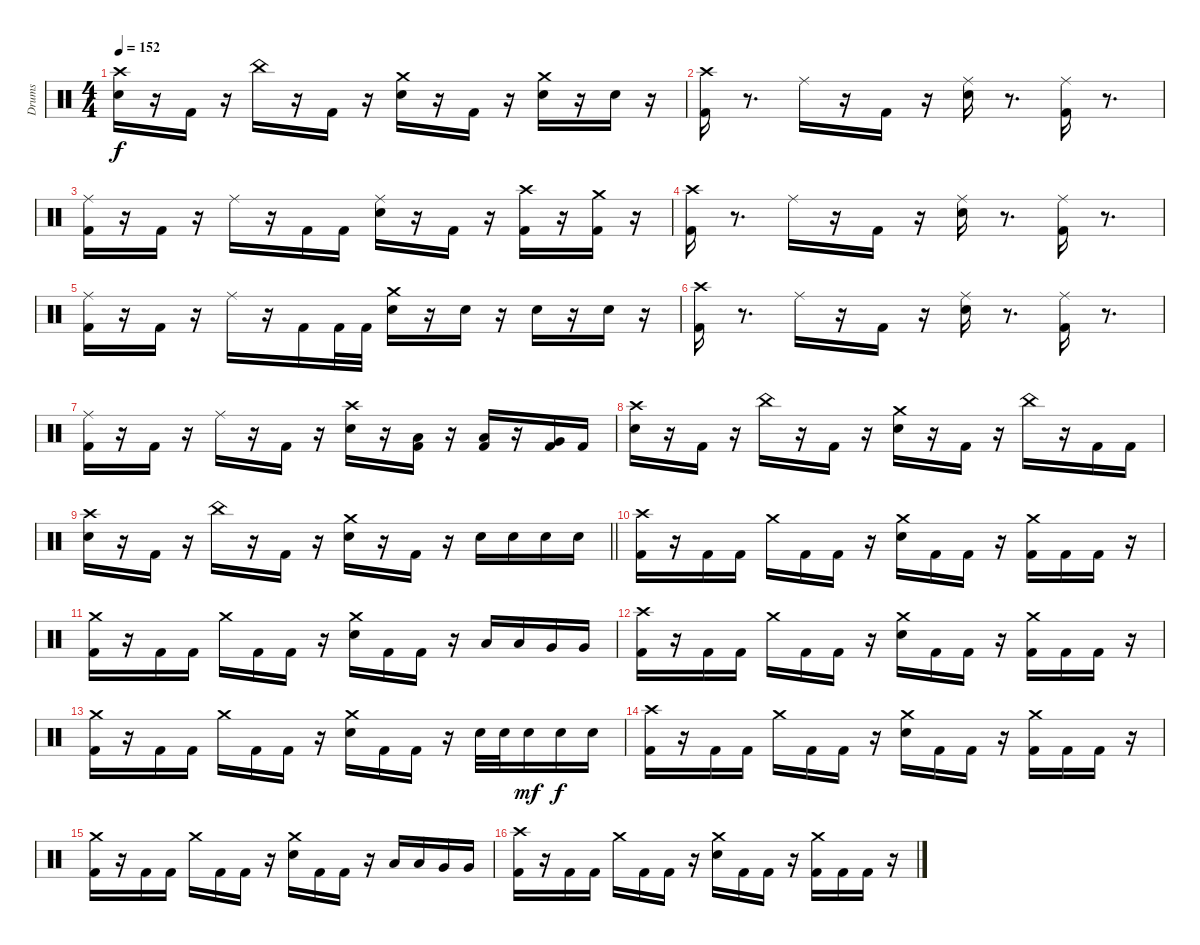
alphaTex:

\track ("Drums" "Drums") {instrument percussion}
\staff {score}
\articulation defaults
\ts (4 4)
\tempo 152
\clef neutral
\ks c
("Snare (hit) 2" "Crash high (hit)").16{dy f} r.16 "Kick (hit) 2".16 r.16 "China (hit)".16 r.16 "Kick (hit) 2".16 r.16 ("Snare (hit) 2" "Crash medium (hit)").16 r.16 "Kick (hit) 2".16 r.16 ("Snare (hit) 2" "Crash medium (hit)").16 r.16 "Snare (hit) 2".16 r.16 |
("Kick (hit) 2" "Crash high (hit)").16 r.8{d} "Ride (middle)".16 r.16 "Kick (hit) 2".16 r.16 ("Snare (hit) 2" "Ride (middle)").16 r.8{d} ("Kick (hit) 2" "Ride (middle)").16 r.8{d} |
("Kick (hit) 2" "Ride (middle)").16 r.16 "Kick (hit) 2".16 r.16 "Ride (middle)".16 r.16 "Kick (hit) 2".16 "Kick (hit) 2".16 ("Snare (hit) 2" "Ride (middle)").16 r.16 "Kick (hit) 2".16 r.16 ("Kick (hit) 2" "Crash high (hit)").16 r.16 ("Kick (hit) 2" "Crash medium (hit)").16 r.16 |
("Kick (hit) 2" "Crash high (hit)").16 r.8{d} "Ride (middle)".16 r.16 "Kick (hit) 2".16 r.16 ("Snare (hit) 2" "Ride (middle)").16 r.8{d} ("Kick (hit) 2" "Ride (middle)").16 r.8{d} |
("Kick (hit) 2" "Ride (middle)").16 r.16 "Kick (hit) 2".16 r.16 "Ride (middle)".16 r.16 "Kick (hit) 2".16 "Kick (hit) 2".32 "Kick (hit) 2".32 ("Snare (hit) 2" "Crash medium (hit)").16 r.16 "Snare (hit) 2".16 r.16 "Snare (hit) 2".16 r.16 "Snare (hit) 2".16 r.16 |
("Kick (hit) 2" "Crash high (hit)").16 r.8{d} "Ride (middle)".16 r.16 "Kick (hit) 2".16 r.16 ("Snare (hit) 2" "Ride (middle)").16 r.8{d} ("Kick (hit) 2" "Ride (middle)").16 r.8{d} |
("Kick (hit) 2" "Ride (middle)").16 r.16 "Kick (hit) 2".16 r.16 "Ride (middle)".16 r.16 "Kick (hit) 2".16 r.16 ("Snare (hit) 2" "Crash high (hit)").16 r.16 ("Kick (hit) 2" "Low Tom (hit)").16 r.16 ("Kick (hit) 2" "Low Tom (hit)").16 r.16 ("Kick (hit) 2" "Very Low Tom (hit)").16 "Kick (hit) 2".16 |
("Snare (hit) 2" "Crash high (hit)").16 r.16 "Kick (hit) 2".16 r.16 "China (hit)".16 r.16 "Kick (hit) 2".16 r.16 ("Snare (hit) 2" "Crash medium (hit)").16 r.16 "Kick (hit) 2".16 r.16 "China (hit)".16 r.16 "Kick (hit) 2".16 "Kick (hit) 2".16 |
\barLineRight lightlight
("Snare (hit) 2" "Crash high (hit)").16 r.16 "Kick (hit) 2".16 r.16 "China (hit)".16 r.16 "Kick (hit) 2".16 r.16 ("Snare (hit) 2" "Crash medium (hit)").16 r.16 "Kick (hit) 2".16 r.16 "Snare (hit) 2".16 "Snare (hit) 2".16 "Snare (hit) 2".16 "Snare (hit) 2".16 |
\section ("" " ")
("Kick (hit) 2" "Crash high (hit)").16 r.16 "Kick (hit) 2".16 "Kick (hit) 2".16 "Crash medium (hit)".16 "Kick (hit) 2".16 "Kick (hit) 2".16 r.16 ("Snare (hit) 2" "Crash medium (hit)").16 "Kick (hit) 2".16 "Kick (hit) 2".16 r.16 ("Kick (hit) 2" "Crash medium (hit)").16 "Kick (hit) 2".16 "Kick (hit) 2".16 r.16 |
("Kick (hit) 2" "Crash medium (hit)").16 r.16 "Kick (hit) 2".16 "Kick (hit) 2".16 "Crash medium (hit)".16 "Kick (hit) 2".16 "Kick (hit) 2".16 r.16 ("Snare (hit) 2" "Crash medium (hit)").16 "Kick (hit) 2".16 "Kick (hit) 2".16 r.16 "Low Tom (hit)".16 "Low Tom (hit)".16 "Very Low Tom (hit)".16 "Very Low Tom (hit)".16 |
("Kick (hit) 2" "Crash high (hit)").16 r.16 "Kick (hit) 2".16 "Kick (hit) 2".16 "Crash medium (hit)".16 "Kick (hit) 2".16 "Kick (hit) 2".16 r.16 ("Snare (hit) 2" "Crash medium (hit)").16 "Kick (hit) 2".16 "Kick (hit) 2".16 r.16 ("Kick (hit) 2" "Crash medium (hit)").16 "Kick (hit) 2".16 "Kick (hit) 2".16 r.16 |
("Kick (hit) 2" "Crash medium (hit)").16 r.16 "Kick (hit) 2".16 "Kick (hit) 2".16 "Crash medium (hit)".16 "Kick (hit) 2".16 "Kick (hit) 2".16 r.16 ("Snare (hit) 2" "Crash medium (hit)").16 "Kick (hit) 2".16 "Kick (hit) 2".16 r.16 "Snare (hit) 2".32 "Snare (hit) 2".32 "Snare (hit) 2".16{dy mf} "Snare (hit) 2".16{dy f} "Snare (hit) 2".16 |
("Kick (hit) 2" "Crash high (hit)").16 r.16 "Kick (hit) 2".16 "Kick (hit) 2".16 "Crash medium (hit)".16 "Kick (hit) 2".16 "Kick (hit) 2".16 r.16 ("Snare (hit) 2" "Crash medium (hit)").16 "Kick (hit) 2".16 "Kick (hit) 2".16 r.16 ("Kick (hit) 2" "Crash medium (hit)").16 "Kick (hit) 2".16 "Kick (hit) 2".16 r.16 |
("Kick (hit) 2" "Crash medium (hit)").16 r.16 "Kick (hit) 2".16 "Kick (hit) 2".16 "Crash medium (hit)".16 "Kick (hit) 2".16 "Kick (hit) 2".16 r.16 ("Snare (hit) 2" "Crash medium (hit)").16 "Kick (hit) 2".16 "Kick (hit) 2".16 r.16 "Low Tom (hit)".16 "Low Tom (hit)".16 "Very Low Tom (hit)".16 "Very Low Tom (hit)".16 |
("Kick (hit) 2" "Crash high (hit)").16 r.16 "Kick (hit) 2".16 "Kick (hit) 2".16 "Crash medium (hit)".16 "Kick (hit) 2".16 "Kick (hit) 2".16 r.16 ("Snare (hit) 2" "Crash medium (hit)").16 "Kick (hit) 2".16 "Kick (hit) 2".16 r.16 ("Kick (hit) 2" "Crash medium (hit)").16 "Kick (hit) 2".16 "Kick (hit) 2".16 r.16
